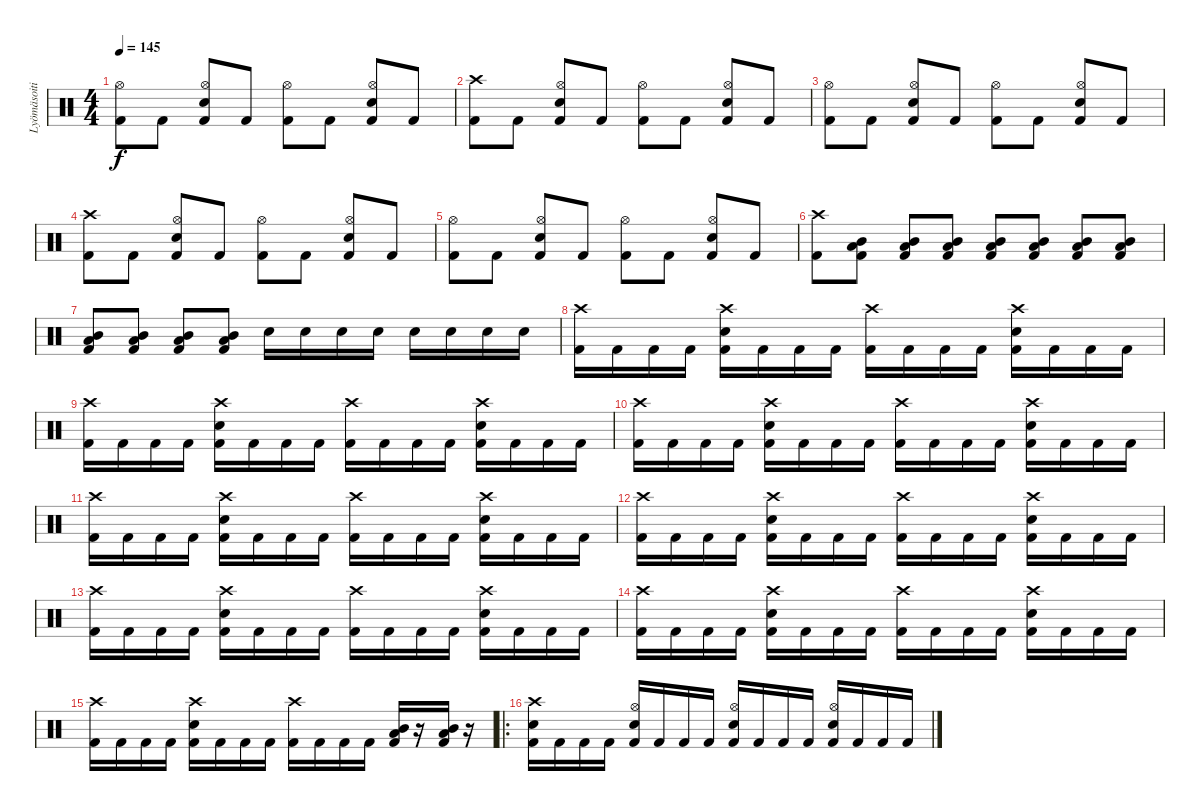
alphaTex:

\track ("Lyömäsoitin" "Lyömäsoiti") {instrument percussion}
\staff {score}
\articulation defaults
\ts (4 4)
\tempo 145
\clef neutral
\ks c
("Kick (hit) 2" "Hi-Hat (open)").8{dy f} "Kick (hit) 2".8 ("Kick (hit) 2" "Electric Snare (hit)" "Hi-Hat (open)").8 "Kick (hit) 2".8 ("Kick (hit) 2" "Hi-Hat (open)").8 "Kick (hit) 2".8 ("Kick (hit) 2" "Electric Snare (hit)" "Hi-Hat (open)").8 "Kick (hit) 2".8 |
("Kick (hit) 2" "Crash high (hit)").8 "Kick (hit) 2".8 ("Kick (hit) 2" "Electric Snare (hit)" "Hi-Hat (open)").8 "Kick (hit) 2".8 ("Kick (hit) 2" "Hi-Hat (open)").8 "Kick (hit) 2".8 ("Kick (hit) 2" "Electric Snare (hit)" "Hi-Hat (open)").8 "Kick (hit) 2".8 |
("Kick (hit) 2" "Hi-Hat (open)").8 "Kick (hit) 2".8 ("Kick (hit) 2" "Electric Snare (hit)" "Hi-Hat (open)").8 "Kick (hit) 2".8 ("Kick (hit) 2" "Hi-Hat (open)").8 "Kick (hit) 2".8 ("Kick (hit) 2" "Electric Snare (hit)" "Hi-Hat (open)").8 "Kick (hit) 2".8 |
("Kick (hit) 2" "Crash high (hit)").8 "Kick (hit) 2".8 ("Kick (hit) 2" "Electric Snare (hit)" "Hi-Hat (open)").8 "Kick (hit) 2".8 ("Kick (hit) 2" "Hi-Hat (open)").8 "Kick (hit) 2".8 ("Kick (hit) 2" "Electric Snare (hit)" "Hi-Hat (open)").8 "Kick (hit) 2".8 |
("Kick (hit) 2" "Hi-Hat (open)").8 "Kick (hit) 2".8 ("Kick (hit) 2" "Electric Snare (hit)" "Hi-Hat (open)").8 "Kick (hit) 2".8 ("Kick (hit) 2" "Hi-Hat (open)").8 "Kick (hit) 2".8 ("Kick (hit) 2" "Electric Snare (hit)" "Hi-Hat (open)").8 "Kick (hit) 2".8 |
("Kick (hit) 2" "Crash high (hit)").8 ("Kick (hit) 2" "Mid Tom (hit)" "Low Tom (hit)").8 ("Kick (hit) 2" "Mid Tom (hit)" "Low Tom (hit)").8 ("Kick (hit) 2" "Mid Tom (hit)" "Low Tom (hit)").8 ("Kick (hit) 2" "Mid Tom (hit)" "Low Tom (hit)").8 ("Kick (hit) 2" "Mid Tom (hit)" "Low Tom (hit)").8 ("Kick (hit) 2" "Mid Tom (hit)" "Low Tom (hit)").8 ("Kick (hit) 2" "Mid Tom (hit)" "Low Tom (hit)").8 |
("Kick (hit) 2" "Mid Tom (hit)" "Low Tom (hit)").8 ("Kick (hit) 2" "Mid Tom (hit)" "Low Tom (hit)").8 ("Kick (hit) 2" "Mid Tom (hit)" "Low Tom (hit)").8 ("Kick (hit) 2" "Mid Tom (hit)" "Low Tom (hit)").8 "Electric Snare (hit)".16 "Electric Snare (hit)".16 "Electric Snare (hit)".16 "Electric Snare (hit)".16 "Electric Snare (hit)".16 "Electric Snare (hit)".16 "Electric Snare (hit)".16 "Electric Snare (hit)".16 |
("Kick (hit) 2" "Crash high (hit)").16 "Kick (hit) 2".16 "Kick (hit) 2".16 "Kick (hit) 2".16 ("Kick (hit) 2" "Electric Snare (hit)" "Crash high (hit)").16 "Kick (hit) 2".16 "Kick (hit) 2".16 "Kick (hit) 2".16 ("Kick (hit) 2" "Crash high (hit)").16 "Kick (hit) 2".16 "Kick (hit) 2".16 "Kick (hit) 2".16 ("Kick (hit) 2" "Electric Snare (hit)" "Crash high (hit)").16 "Kick (hit) 2".16 "Kick (hit) 2".16 "Kick (hit) 2".16 |
("Kick (hit) 2" "Crash high (hit)").16 "Kick (hit) 2".16 "Kick (hit) 2".16 "Kick (hit) 2".16 ("Kick (hit) 2" "Electric Snare (hit)" "Crash high (hit)").16 "Kick (hit) 2".16 "Kick (hit) 2".16 "Kick (hit) 2".16 ("Kick (hit) 2" "Crash high (hit)").16 "Kick (hit) 2".16 "Kick (hit) 2".16 "Kick (hit) 2".16 ("Kick (hit) 2" "Electric Snare (hit)" "Crash high (hit)").16 "Kick (hit) 2".16 "Kick (hit) 2".16 "Kick (hit) 2".16 |
("Kick (hit) 2" "Crash high (hit)").16 "Kick (hit) 2".16 "Kick (hit) 2".16 "Kick (hit) 2".16 ("Kick (hit) 2" "Electric Snare (hit)" "Crash high (hit)").16 "Kick (hit) 2".16 "Kick (hit) 2".16 "Kick (hit) 2".16 ("Kick (hit) 2" "Crash high (hit)").16 "Kick (hit) 2".16 "Kick (hit) 2".16 "Kick (hit) 2".16 ("Kick (hit) 2" "Electric Snare (hit)" "Crash high (hit)").16 "Kick (hit) 2".16 "Kick (hit) 2".16 "Kick (hit) 2".16 |
("Kick (hit) 2" "Crash high (hit)").16 "Kick (hit) 2".16 "Kick (hit) 2".16 "Kick (hit) 2".16 ("Kick (hit) 2" "Electric Snare (hit)" "Crash high (hit)").16 "Kick (hit) 2".16 "Kick (hit) 2".16 "Kick (hit) 2".16 ("Kick (hit) 2" "Crash high (hit)").16 "Kick (hit) 2".16 "Kick (hit) 2".16 "Kick (hit) 2".16 ("Kick (hit) 2" "Electric Snare (hit)" "Crash high (hit)").16 "Kick (hit) 2".16 "Kick (hit) 2".16 "Kick (hit) 2".16 |
("Kick (hit) 2" "Crash high (hit)").16 "Kick (hit) 2".16 "Kick (hit) 2".16 "Kick (hit) 2".16 ("Kick (hit) 2" "Electric Snare (hit)" "Crash high (hit)").16 "Kick (hit) 2".16 "Kick (hit) 2".16 "Kick (hit) 2".16 ("Kick (hit) 2" "Crash high (hit)").16 "Kick (hit) 2".16 "Kick (hit) 2".16 "Kick (hit) 2".16 ("Kick (hit) 2" "Electric Snare (hit)" "Crash high (hit)").16 "Kick (hit) 2".16 "Kick (hit) 2".16 "Kick (hit) 2".16 |
("Kick (hit) 2" "Crash high (hit)").16 "Kick (hit) 2".16 "Kick (hit) 2".16 "Kick (hit) 2".16 ("Kick (hit) 2" "Electric Snare (hit)" "Crash high (hit)").16 "Kick (hit) 2".16 "Kick (hit) 2".16 "Kick (hit) 2".16 ("Kick (hit) 2" "Crash high (hit)").16 "Kick (hit) 2".16 "Kick (hit) 2".16 "Kick (hit) 2".16 ("Kick (hit) 2" "Electric Snare (hit)" "Crash high (hit)").16 "Kick (hit) 2".16 "Kick (hit) 2".16 "Kick (hit) 2".16 |
("Kick (hit) 2" "Crash high (hit)").16 "Kick (hit) 2".16 "Kick (hit) 2".16 "Kick (hit) 2".16 ("Kick (hit) 2" "Electric Snare (hit)" "Crash high (hit)").16 "Kick (hit) 2".16 "Kick (hit) 2".16 "Kick (hit) 2".16 ("Kick (hit) 2" "Crash high (hit)").16 "Kick (hit) 2".16 "Kick (hit) 2".16 "Kick (hit) 2".16 ("Kick (hit) 2" "Electric Snare (hit)" "Crash high (hit)").16 "Kick (hit) 2".16 "Kick (hit) 2".16 "Kick (hit) 2".16 |
("Kick (hit) 2" "Crash high (hit)").16 "Kick (hit) 2".16 "Kick (hit) 2".16 "Kick (hit) 2".16 ("Kick (hit) 2" "Electric Snare (hit)" "Crash high (hit)").16 "Kick (hit) 2".16 "Kick (hit) 2".16 "Kick (hit) 2".16 ("Kick (hit) 2" "Crash high (hit)").16 "Kick (hit) 2".16 "Kick (hit) 2".16 "Kick (hit) 2".16 ("Kick (hit) 2" "Mid Tom (hit)" "Low Tom (hit)").16 r.16 ("Kick (hit) 2" "Mid Tom (hit)" "Low Tom (hit)").16 r.16 |
\ro
("Kick (hit) 2" "Electric Snare (hit)" "Crash high (hit)").16 "Kick (hit) 2".16 "Kick (hit) 2".16 "Kick (hit) 2".16 ("Kick (hit) 2" "Electric Snare (hit)" "Hi-Hat (open)").16 "Kick (hit) 2".16 "Kick (hit) 2".16 "Kick (hit) 2".16 ("Kick (hit) 2" "Electric Snare (hit)" "Hi-Hat (open)").16 "Kick (hit) 2".16 "Kick (hit) 2".16 "Kick (hit) 2".16 ("Kick (hit) 2" "Electric Snare (hit)" "Hi-Hat (open)").16 "Kick (hit) 2".16 "Kick (hit) 2".16 "Kick (hit) 2".16
